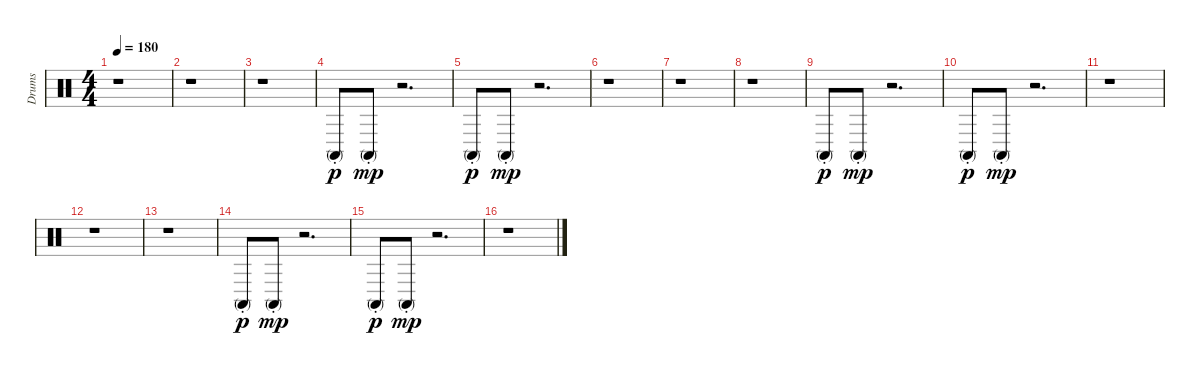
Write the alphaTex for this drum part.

\track ("Drums" "Drums") {instrument percussion}
\staff {score}
\articulation defaults
\ts (4 4)
\tempo 180
\clef neutral
\ks c
r.1{dy p} |
r.1 |
r.1 |
"Conga high (mute)"{st}.8 "Conga high (mute)"{st}.8{dy mp} r.2{d} |
"Conga high (mute)"{st}.8{dy p} "Conga high (mute)"{st}.8{dy mp} r.2{d} |
r.1 |
r.1 |
r.1 |
"Conga high (mute)"{st}.8{dy p} "Conga high (mute)"{st}.8{dy mp} r.2{d} |
"Conga high (mute)"{st}.8{dy p} "Conga high (mute)"{st}.8{dy mp} r.2{d} |
r.1 |
r.1 |
r.1 |
"Conga high (mute)"{st}.8{dy p} "Conga high (mute)"{st}.8{dy mp} r.2{d} |
"Conga high (mute)"{st}.8{dy p} "Conga high (mute)"{st}.8{dy mp} r.2{d} |
r.1
